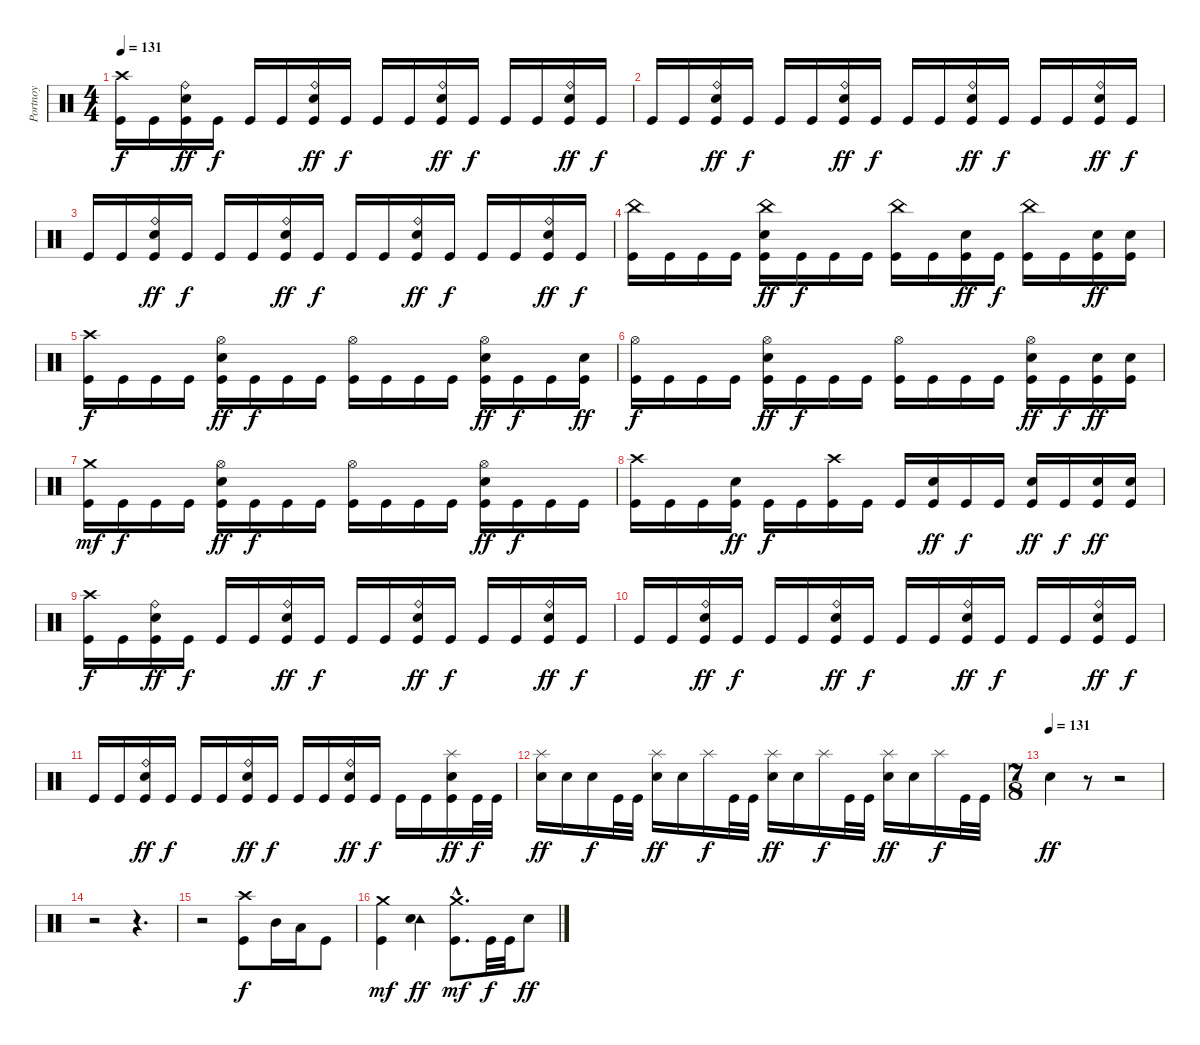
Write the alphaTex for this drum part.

\track ("Portnoy" "Portnoy") {instrument percussion}
\staff {score}
\articulation defaults
\ts (4 4)
\tempo 131
\clef neutral
\ks c
("Crash high (hit)" "Kick (hit)").16{dy f} "Kick (hit)".16 ("Ride (bell)" "Electric Snare (hit)" "Kick (hit)").16{dy ff} "Kick (hit)".16{dy f} "Kick (hit)".16 "Kick (hit)".16 ("Ride (bell)" "Electric Snare (hit)" "Kick (hit)").16{dy ff} "Kick (hit)".16{dy f} "Kick (hit)".16 "Kick (hit)".16 ("Ride (bell)" "Electric Snare (hit)" "Kick (hit)").16{dy ff} "Kick (hit)".16{dy f} "Kick (hit)".16 "Kick (hit)".16 ("Ride (bell)" "Electric Snare (hit)" "Kick (hit)").16{dy ff} "Kick (hit)".16{dy f} |
"Kick (hit)".16 "Kick (hit)".16 ("Ride (bell)" "Electric Snare (hit)" "Kick (hit)").16{dy ff} "Kick (hit)".16{dy f} "Kick (hit)".16 "Kick (hit)".16 ("Ride (bell)" "Electric Snare (hit)" "Kick (hit)").16{dy ff} "Kick (hit)".16{dy f} "Kick (hit)".16 "Kick (hit)".16 ("Ride (bell)" "Electric Snare (hit)" "Kick (hit)").16{dy ff} "Kick (hit)".16{dy f} "Kick (hit)".16 "Kick (hit)".16 ("Ride (bell)" "Electric Snare (hit)" "Kick (hit)").16{dy ff} "Kick (hit)".16{dy f} |
"Kick (hit)".16 "Kick (hit)".16 ("Ride (bell)" "Electric Snare (hit)" "Kick (hit)").16{dy ff} "Kick (hit)".16{dy f} "Kick (hit)".16 "Kick (hit)".16 ("Ride (bell)" "Electric Snare (hit)" "Kick (hit)").16{dy ff} "Kick (hit)".16{dy f} "Kick (hit)".16 "Kick (hit)".16 ("Ride (bell)" "Electric Snare (hit)" "Kick (hit)").16{dy ff} "Kick (hit)".16{dy f} "Kick (hit)".16 "Kick (hit)".16 ("Ride (bell)" "Electric Snare (hit)" "Kick (hit)").16{dy ff} "Kick (hit)".16{dy f} |
("China (hit)" "Kick (hit)").16 "Kick (hit)".16 "Kick (hit)".16 "Kick (hit)".16 ("China (hit)" "Electric Snare (hit)" "Kick (hit)").16{dy ff} "Kick (hit)".16{dy f} "Kick (hit)".16 "Kick (hit)".16 ("China (hit)" "Kick (hit)").16 "Kick (hit)".16 ("Electric Snare (hit)" "Kick (hit)").16{dy ff} "Kick (hit)".16{dy f} ("China (hit)" "Kick (hit)").16 "Kick (hit)".16 ("Electric Snare (hit)" "Kick (hit)").16{dy ff} ("Electric Snare (hit)" "Kick (hit)").16 |
("Crash high (hit)" "Kick (hit)").16{dy f} "Kick (hit)".16 "Kick (hit)".16 "Kick (hit)".16 ("Hi-Hat (open)" "Electric Snare (hit)" "Kick (hit)").16{dy ff} "Kick (hit)".16{dy f} "Kick (hit)".16 "Kick (hit)".16 ("Hi-Hat (open)" "Kick (hit)").16 "Kick (hit)".16 "Kick (hit)".16 "Kick (hit)".16 ("Hi-Hat (open)" "Electric Snare (hit)" "Kick (hit)").16{dy ff} "Kick (hit)".16{dy f} "Kick (hit)".16 ("Electric Snare (hit)" "Kick (hit)").16{dy ff} |
("Hi-Hat (open)" "Kick (hit)").16{dy f} "Kick (hit)".16 "Kick (hit)".16 "Kick (hit)".16 ("Hi-Hat (open)" "Electric Snare (hit)" "Kick (hit)").16{dy ff} "Kick (hit)".16{dy f} "Kick (hit)".16 "Kick (hit)".16 ("Hi-Hat (open)" "Kick (hit)").16 "Kick (hit)".16 "Kick (hit)".16 "Kick (hit)".16 ("Hi-Hat (open)" "Electric Snare (hit)" "Kick (hit)").16{dy ff} "Kick (hit)".16{dy f} ("Electric Snare (hit)" "Kick (hit)").16{dy ff} ("Electric Snare (hit)" "Kick (hit)").16 |
("Crash medium (hit)" "Kick (hit)").16{dy mf} "Kick (hit)".16{dy f} "Kick (hit)".16 "Kick (hit)".16 ("Hi-Hat (open)" "Electric Snare (hit)" "Kick (hit)").16{dy ff} "Kick (hit)".16{dy f} "Kick (hit)".16 "Kick (hit)".16 ("Hi-Hat (open)" "Kick (hit)").16 "Kick (hit)".16 "Kick (hit)".16 "Kick (hit)".16 ("Hi-Hat (open)" "Electric Snare (hit)" "Kick (hit)").16{dy ff} "Kick (hit)".16{dy f} "Kick (hit)".16 "Kick (hit)".16 |
("Crash high (hit)" "Kick (hit)").16 "Kick (hit)".16 "Kick (hit)".16 ("Electric Snare (hit)" "Kick (hit)").16{dy ff} "Kick (hit)".16{dy f} "Kick (hit)".16 ("Crash high (hit)" "Kick (hit)").16 "Kick (hit)".16 "Kick (hit)".16 ("Electric Snare (hit)" "Kick (hit)").16{dy ff} "Kick (hit)".16{dy f} "Kick (hit)".16 ("Electric Snare (hit)" "Kick (hit)").16{dy ff} "Kick (hit)".16{dy f} ("Electric Snare (hit)" "Kick (hit)").16{dy ff} ("Electric Snare (hit)" "Kick (hit)").16 |
("Crash high (hit)" "Kick (hit)").16{dy f} "Kick (hit)".16 ("Ride (bell)" "Electric Snare (hit)" "Kick (hit)").16{dy ff} "Kick (hit)".16{dy f} "Kick (hit)".16 "Kick (hit)".16 ("Ride (bell)" "Electric Snare (hit)" "Kick (hit)").16{dy ff} "Kick (hit)".16{dy f} "Kick (hit)".16 "Kick (hit)".16 ("Ride (bell)" "Electric Snare (hit)" "Kick (hit)").16{dy ff} "Kick (hit)".16{dy f} "Kick (hit)".16 "Kick (hit)".16 ("Ride (bell)" "Electric Snare (hit)" "Kick (hit)").16{dy ff} "Kick (hit)".16{dy f} |
"Kick (hit)".16 "Kick (hit)".16 ("Ride (bell)" "Electric Snare (hit)" "Kick (hit)").16{dy ff} "Kick (hit)".16{dy f} "Kick (hit)".16 "Kick (hit)".16 ("Ride (bell)" "Electric Snare (hit)" "Kick (hit)").16{dy ff} "Kick (hit)".16{dy f} "Kick (hit)".16 "Kick (hit)".16 ("Ride (bell)" "Electric Snare (hit)" "Kick (hit)").16{dy ff} "Kick (hit)".16{dy f} "Kick (hit)".16 "Kick (hit)".16 ("Ride (bell)" "Electric Snare (hit)" "Kick (hit)").16{dy ff} "Kick (hit)".16{dy f} |
"Kick (hit)".16 "Kick (hit)".16 ("Ride (bell)" "Electric Snare (hit)" "Kick (hit)").16{dy ff} "Kick (hit)".16{dy f} "Kick (hit)".16 "Kick (hit)".16 ("Ride (bell)" "Electric Snare (hit)" "Kick (hit)").16{dy ff} "Kick (hit)".16{dy f} "Kick (hit)".16 "Kick (hit)".16 ("Ride (bell)" "Electric Snare (hit)" "Kick (hit)").16{dy ff} "Kick (hit)".16{dy f} "Kick (hit)".16 "Kick (hit)".16 ("Splash (hit)" "Electric Snare (hit)" "Kick (hit)").16{dy ff} "Kick (hit)".32{dy f} "Kick (hit)".32 |
("Splash (hit)" "Electric Snare (hit)").16{dy ff} "Electric Snare (hit)".16 "Snare (hit)".16{dy f} "Kick (hit)".32 "Kick (hit)".32 ("Splash (hit)" "Electric Snare (hit)").16{dy ff} "Electric Snare (hit)".16 "Splash (hit)".16{dy f} "Kick (hit)".32 "Kick (hit)".32 ("Splash (hit)" "Electric Snare (hit)").16{dy ff} "Electric Snare (hit)".16 "Splash (hit)".16{dy f} "Kick (hit)".32 "Kick (hit)".32 ("Splash (hit)" "Electric Snare (hit)").16{dy ff} "Electric Snare (hit)".16 "Splash (hit)".16{dy f} "Kick (hit)".32 "Kick (hit)".32 |
\ts (7 8)
\tempo (131)
"Electric Snare (hit)".4{dy ff} r.8 r.2 |
r.2 r.4{d} |
r.2 ("Crash high (hit)" "Kick (hit)").8{dy f} "Mid Tom (hit)".16 "Low Tom (hit)".16 "Kick (hit)".8 |
("Crash medium (hit)" "Kick (hit)").4{dy mf} ("Tambourine (hit)" "Electric Snare (hit)").4{dy ff} ("Crash medium (hit)"{hac} "Kick (hit)"{hac}).8{d dy mf} "Kick (hit)".32{dy f} "Kick (hit)".32 "Electric Snare (hit)".8{dy ff}
